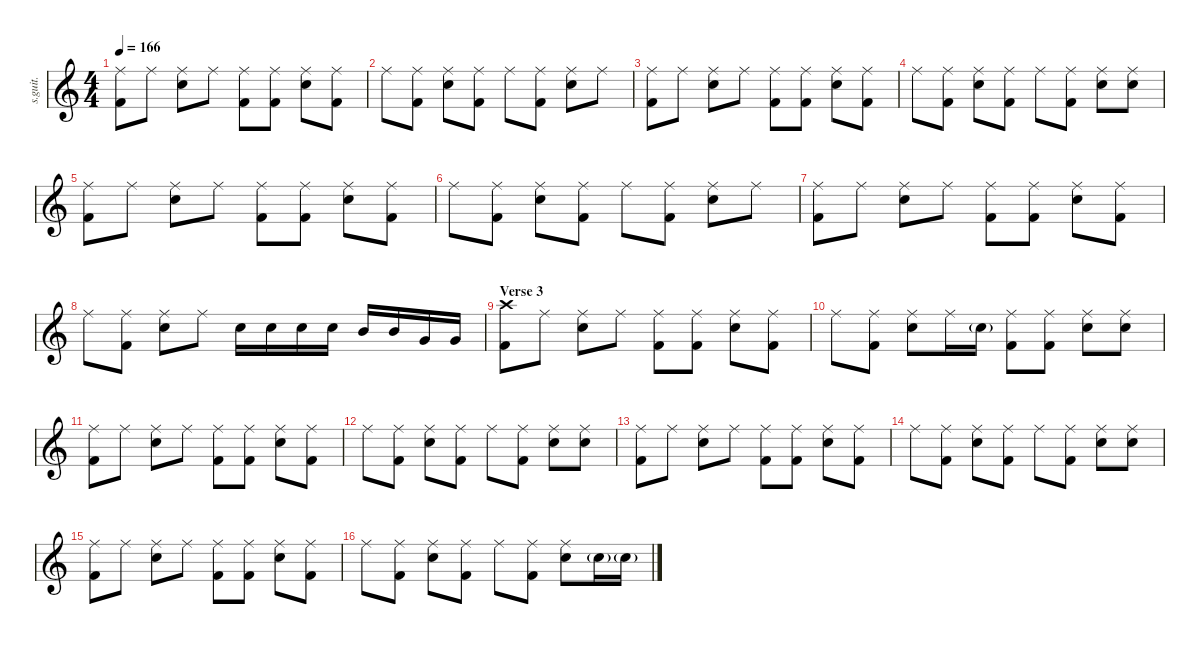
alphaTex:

\defaultSystemsLayout 4
\hideDynamics
\bracketExtendMode nobrackets
\track ("Phil Selway" "s.guit.") {instrument percussion}
\staff {score}
\articulation defaults
\ts (4 4)
\tempo 166
\clef g2
\ks c
("Ride (middle)" "Kick (hit) 2").8{lyrics (0 "") lyrics (1 "") lyrics (2 "") lyrics (3 "") lyrics (4 "") dy f} "Ride (middle)".8{lyrics (0 "") lyrics (1 "") lyrics (2 "") lyrics (3 "") lyrics (4 "")} ("Ride (middle)" "Electric Snare (hit)").8{lyrics (0 "") lyrics (1 "") lyrics (2 "") lyrics (3 "") lyrics (4 "")} "Ride (middle)".8{lyrics (0 "") lyrics (1 "") lyrics (2 "") lyrics (3 "") lyrics (4 "")} ("Ride (middle)" "Kick (hit) 2").8{lyrics (0 "") lyrics (1 "") lyrics (2 "") lyrics (3 "") lyrics (4 "")} ("Ride (middle)" "Kick (hit) 2").8{lyrics (0 "") lyrics (1 "") lyrics (2 "") lyrics (3 "") lyrics (4 "")} ("Ride (middle)" "Electric Snare (hit)").8{lyrics (0 "") lyrics (1 "") lyrics (2 "") lyrics (3 "") lyrics (4 "")} ("Ride (middle)" "Kick (hit) 2").8{lyrics (0 "") lyrics (1 "") lyrics (2 "") lyrics (3 "") lyrics (4 "")} |
"Ride (middle)".8{lyrics (0 "") lyrics (1 "") lyrics (2 "") lyrics (3 "") lyrics (4 "")} ("Ride (middle)" "Kick (hit) 2").8{lyrics (0 "") lyrics (1 "") lyrics (2 "") lyrics (3 "") lyrics (4 "")} ("Ride (middle)" "Electric Snare (hit)").8{lyrics (0 "") lyrics (1 "") lyrics (2 "") lyrics (3 "") lyrics (4 "")} ("Ride (middle)" "Kick (hit) 2").8{lyrics (0 "") lyrics (1 "") lyrics (2 "") lyrics (3 "") lyrics (4 "")} "Ride (middle)".8{lyrics (0 "") lyrics (1 "") lyrics (2 "") lyrics (3 "") lyrics (4 "")} ("Ride (middle)" "Kick (hit) 2").8{lyrics (0 "") lyrics (1 "") lyrics (2 "") lyrics (3 "") lyrics (4 "")} ("Ride (middle)" "Electric Snare (hit)").8{lyrics (0 "") lyrics (1 "") lyrics (2 "") lyrics (3 "") lyrics (4 "")} "Ride (middle)".8{lyrics (0 "") lyrics (1 "") lyrics (2 "") lyrics (3 "") lyrics (4 "")} |
("Ride (middle)" "Kick (hit) 2").8{lyrics (0 "") lyrics (1 "") lyrics (2 "") lyrics (3 "") lyrics (4 "")} "Ride (middle)".8{lyrics (0 "") lyrics (1 "") lyrics (2 "") lyrics (3 "") lyrics (4 "")} ("Ride (middle)" "Electric Snare (hit)").8{lyrics (0 "") lyrics (1 "") lyrics (2 "") lyrics (3 "") lyrics (4 "")} "Ride (middle)".8{lyrics (0 "") lyrics (1 "") lyrics (2 "") lyrics (3 "") lyrics (4 "")} ("Ride (middle)" "Kick (hit) 2").8{lyrics (0 "") lyrics (1 "") lyrics (2 "") lyrics (3 "") lyrics (4 "")} ("Ride (middle)" "Kick (hit) 2").8{lyrics (0 "") lyrics (1 "") lyrics (2 "") lyrics (3 "") lyrics (4 "")} ("Ride (middle)" "Electric Snare (hit)").8{lyrics (0 "") lyrics (1 "") lyrics (2 "") lyrics (3 "") lyrics (4 "")} ("Ride (middle)" "Kick (hit) 2").8{lyrics (0 "") lyrics (1 "") lyrics (2 "") lyrics (3 "") lyrics (4 "")} |
"Ride (middle)".8{lyrics (0 "") lyrics (1 "") lyrics (2 "") lyrics (3 "") lyrics (4 "")} ("Ride (middle)" "Kick (hit) 2").8{lyrics (0 "") lyrics (1 "") lyrics (2 "") lyrics (3 "") lyrics (4 "")} ("Ride (middle)" "Electric Snare (hit)").8{lyrics (0 "") lyrics (1 "") lyrics (2 "") lyrics (3 "") lyrics (4 "")} ("Ride (middle)" "Kick (hit) 2").8{lyrics (0 "") lyrics (1 "") lyrics (2 "") lyrics (3 "") lyrics (4 "")} "Ride (middle)".8{lyrics (0 "") lyrics (1 "") lyrics (2 "") lyrics (3 "") lyrics (4 "")} ("Ride (middle)" "Kick (hit) 2").8{lyrics (0 "") lyrics (1 "") lyrics (2 "") lyrics (3 "") lyrics (4 "")} ("Ride (middle)" "Electric Snare (hit)").8{lyrics (0 "") lyrics (1 "") lyrics (2 "") lyrics (3 "") lyrics (4 "")} ("Ride (middle)" "Electric Snare (hit)").8{lyrics (0 "") lyrics (1 "") lyrics (2 "") lyrics (3 "") lyrics (4 "")} |
("Ride (middle)" "Kick (hit) 2").8{lyrics (0 "") lyrics (1 "") lyrics (2 "") lyrics (3 "") lyrics (4 "")} "Ride (middle)".8{lyrics (0 "") lyrics (1 "") lyrics (2 "") lyrics (3 "") lyrics (4 "")} ("Ride (middle)" "Electric Snare (hit)").8{lyrics (0 "") lyrics (1 "") lyrics (2 "") lyrics (3 "") lyrics (4 "")} "Ride (middle)".8{lyrics (0 "") lyrics (1 "") lyrics (2 "") lyrics (3 "") lyrics (4 "")} ("Ride (middle)" "Kick (hit) 2").8{lyrics (0 "") lyrics (1 "") lyrics (2 "") lyrics (3 "") lyrics (4 "")} ("Ride (middle)" "Kick (hit) 2").8{lyrics (0 "") lyrics (1 "") lyrics (2 "") lyrics (3 "") lyrics (4 "")} ("Ride (middle)" "Electric Snare (hit)").8{lyrics (0 "") lyrics (1 "") lyrics (2 "") lyrics (3 "") lyrics (4 "")} ("Ride (middle)" "Kick (hit) 2").8{lyrics (0 "") lyrics (1 "") lyrics (2 "") lyrics (3 "") lyrics (4 "")} |
"Ride (middle)".8{lyrics (0 "") lyrics (1 "") lyrics (2 "") lyrics (3 "") lyrics (4 "")} ("Ride (middle)" "Kick (hit) 2").8{lyrics (0 "") lyrics (1 "") lyrics (2 "") lyrics (3 "") lyrics (4 "")} ("Ride (middle)" "Electric Snare (hit)").8{lyrics (0 "") lyrics (1 "") lyrics (2 "") lyrics (3 "") lyrics (4 "")} ("Ride (middle)" "Kick (hit) 2").8{lyrics (0 "") lyrics (1 "") lyrics (2 "") lyrics (3 "") lyrics (4 "")} "Ride (middle)".8{lyrics (0 "") lyrics (1 "") lyrics (2 "") lyrics (3 "") lyrics (4 "")} ("Ride (middle)" "Kick (hit) 2").8{lyrics (0 "") lyrics (1 "") lyrics (2 "") lyrics (3 "") lyrics (4 "")} ("Ride (middle)" "Electric Snare (hit)").8{lyrics (0 "") lyrics (1 "") lyrics (2 "") lyrics (3 "") lyrics (4 "")} "Ride (middle)".8{lyrics (0 "") lyrics (1 "") lyrics (2 "") lyrics (3 "") lyrics (4 "")} |
("Ride (middle)" "Kick (hit) 2").8{lyrics (0 "") lyrics (1 "") lyrics (2 "") lyrics (3 "") lyrics (4 "")} "Ride (middle)".8{lyrics (0 "") lyrics (1 "") lyrics (2 "") lyrics (3 "") lyrics (4 "")} ("Ride (middle)" "Electric Snare (hit)").8{lyrics (0 "") lyrics (1 "") lyrics (2 "") lyrics (3 "") lyrics (4 "")} "Ride (middle)".8{lyrics (0 "") lyrics (1 "") lyrics (2 "") lyrics (3 "") lyrics (4 "")} ("Ride (middle)" "Kick (hit) 2").8{lyrics (0 "") lyrics (1 "") lyrics (2 "") lyrics (3 "") lyrics (4 "")} ("Ride (middle)" "Kick (hit) 2").8{lyrics (0 "") lyrics (1 "") lyrics (2 "") lyrics (3 "") lyrics (4 "")} ("Ride (middle)" "Electric Snare (hit)").8{lyrics (0 "") lyrics (1 "") lyrics (2 "") lyrics (3 "") lyrics (4 "")} ("Ride (middle)" "Kick (hit) 2").8{lyrics (0 "") lyrics (1 "") lyrics (2 "") lyrics (3 "") lyrics (4 "")} |
"Ride (middle)".8{lyrics (0 "") lyrics (1 "") lyrics (2 "") lyrics (3 "") lyrics (4 "")} ("Ride (middle)" "Kick (hit) 2").8{lyrics (0 "") lyrics (1 "") lyrics (2 "") lyrics (3 "") lyrics (4 "")} ("Ride (middle)" "Electric Snare (hit)").8{lyrics (0 "") lyrics (1 "") lyrics (2 "") lyrics (3 "") lyrics (4 "")} "Ride (middle)".8{lyrics (0 "") lyrics (1 "") lyrics (2 "") lyrics (3 "") lyrics (4 "")} "Snare (hit) 2".16{lyrics (0 "") lyrics (1 "") lyrics (2 "") lyrics (3 "") lyrics (4 "")} "Snare (hit) 2".16{lyrics (0 "") lyrics (1 "") lyrics (2 "") lyrics (3 "") lyrics (4 "")} "Snare (hit) 2".16{lyrics (0 "") lyrics (1 "") lyrics (2 "") lyrics (3 "") lyrics (4 "")} "Snare (hit) 2".16{lyrics (0 "") lyrics (1 "") lyrics (2 "") lyrics (3 "") lyrics (4 "")} "Mid Tom (hit)".16{lyrics (0 "") lyrics (1 "") lyrics (2 "") lyrics (3 "") lyrics (4 "")} "Mid Tom (hit)".16{lyrics (0 "") lyrics (1 "") lyrics (2 "") lyrics (3 "") lyrics (4 "")} "Very Low Tom (hit)".16{lyrics (0 "") lyrics (1 "") lyrics (2 "") lyrics (3 "") lyrics (4 "")} "Very Low Tom (hit)".16{lyrics (0 "") lyrics (1 "") lyrics (2 "") lyrics (3 "") lyrics (4 "")} |
\section ("" "Verse 3")
("Crash high (hit)" "Kick (hit) 2").8{lyrics (0 "") lyrics (1 "") lyrics (2 "") lyrics (3 "") lyrics (4 "")} "Ride (middle)".8{lyrics (0 "") lyrics (1 "") lyrics (2 "") lyrics (3 "") lyrics (4 "")} ("Ride (middle)" "Electric Snare (hit)").8{lyrics (0 "") lyrics (1 "") lyrics (2 "") lyrics (3 "") lyrics (4 "")} "Ride (middle)".8{lyrics (0 "") lyrics (1 "") lyrics (2 "") lyrics (3 "") lyrics (4 "")} ("Ride (middle)" "Kick (hit) 2").8{lyrics (0 "") lyrics (1 "") lyrics (2 "") lyrics (3 "") lyrics (4 "")} ("Ride (middle)" "Kick (hit) 2").8{lyrics (0 "") lyrics (1 "") lyrics (2 "") lyrics (3 "") lyrics (4 "")} ("Ride (middle)" "Electric Snare (hit)").8{lyrics (0 "") lyrics (1 "") lyrics (2 "") lyrics (3 "") lyrics (4 "")} ("Ride (middle)" "Kick (hit) 2").8{lyrics (0 "") lyrics (1 "") lyrics (2 "") lyrics (3 "") lyrics (4 "")} |
"Ride (middle)".8{lyrics (0 "") lyrics (1 "") lyrics (2 "") lyrics (3 "") lyrics (4 "")} ("Ride (middle)" "Kick (hit) 2").8{lyrics (0 "") lyrics (1 "") lyrics (2 "") lyrics (3 "") lyrics (4 "")} ("Ride (middle)" "Electric Snare (hit)").8{lyrics (0 "") lyrics (1 "") lyrics (2 "") lyrics (3 "") lyrics (4 "")} "Ride (middle)".16{lyrics (0 "") lyrics (1 "") lyrics (2 "") lyrics (3 "") lyrics (4 "")} "Snare (hit) 2"{g}.16{lyrics (0 "") lyrics (1 "") lyrics (2 "") lyrics (3 "") lyrics (4 "") dy mf} ("Ride (middle)" "Kick (hit) 2").8{lyrics (0 "") lyrics (1 "") lyrics (2 "") lyrics (3 "") lyrics (4 "")} ("Ride (middle)" "Kick (hit) 2").8{lyrics (0 "") lyrics (1 "") lyrics (2 "") lyrics (3 "") lyrics (4 "") dy f} ("Ride (middle)" "Electric Snare (hit)").8{lyrics (0 "") lyrics (1 "") lyrics (2 "") lyrics (3 "") lyrics (4 "")} ("Ride (middle)" "Electric Snare (hit)").8{lyrics (0 "") lyrics (1 "") lyrics (2 "") lyrics (3 "") lyrics (4 "")} |
("Ride (middle)" "Kick (hit) 2").8{lyrics (0 "") lyrics (1 "") lyrics (2 "") lyrics (3 "") lyrics (4 "")} "Ride (middle)".8{lyrics (0 "") lyrics (1 "") lyrics (2 "") lyrics (3 "") lyrics (4 "")} ("Ride (middle)" "Electric Snare (hit)").8{lyrics (0 "") lyrics (1 "") lyrics (2 "") lyrics (3 "") lyrics (4 "")} "Ride (middle)".8{lyrics (0 "") lyrics (1 "") lyrics (2 "") lyrics (3 "") lyrics (4 "")} ("Ride (middle)" "Kick (hit) 2").8{lyrics (0 "") lyrics (1 "") lyrics (2 "") lyrics (3 "") lyrics (4 "")} ("Ride (middle)" "Kick (hit) 2").8{lyrics (0 "") lyrics (1 "") lyrics (2 "") lyrics (3 "") lyrics (4 "")} ("Ride (middle)" "Electric Snare (hit)").8{lyrics (0 "") lyrics (1 "") lyrics (2 "") lyrics (3 "") lyrics (4 "")} ("Ride (middle)" "Kick (hit) 2").8{lyrics (0 "") lyrics (1 "") lyrics (2 "") lyrics (3 "") lyrics (4 "")} |
"Ride (middle)".8{lyrics (0 "") lyrics (1 "") lyrics (2 "") lyrics (3 "") lyrics (4 "")} ("Ride (middle)" "Kick (hit) 2").8{lyrics (0 "") lyrics (1 "") lyrics (2 "") lyrics (3 "") lyrics (4 "")} ("Ride (middle)" "Electric Snare (hit)").8{lyrics (0 "") lyrics (1 "") lyrics (2 "") lyrics (3 "") lyrics (4 "")} ("Ride (middle)" "Kick (hit) 2").8{lyrics (0 "") lyrics (1 "") lyrics (2 "") lyrics (3 "") lyrics (4 "")} "Ride (middle)".8{lyrics (0 "") lyrics (1 "") lyrics (2 "") lyrics (3 "") lyrics (4 "")} ("Ride (middle)" "Kick (hit) 2").8{lyrics (0 "") lyrics (1 "") lyrics (2 "") lyrics (3 "") lyrics (4 "")} ("Ride (middle)" "Electric Snare (hit)").8{lyrics (0 "") lyrics (1 "") lyrics (2 "") lyrics (3 "") lyrics (4 "")} ("Ride (middle)" "Electric Snare (hit)").8{lyrics (0 "") lyrics (1 "") lyrics (2 "") lyrics (3 "") lyrics (4 "")} |
("Ride (middle)" "Kick (hit) 2").8{lyrics (0 "") lyrics (1 "") lyrics (2 "") lyrics (3 "") lyrics (4 "")} "Ride (middle)".8{lyrics (0 "") lyrics (1 "") lyrics (2 "") lyrics (3 "") lyrics (4 "")} ("Ride (middle)" "Electric Snare (hit)").8{lyrics (0 "") lyrics (1 "") lyrics (2 "") lyrics (3 "") lyrics (4 "")} "Ride (middle)".8{lyrics (0 "") lyrics (1 "") lyrics (2 "") lyrics (3 "") lyrics (4 "")} ("Ride (middle)" "Kick (hit) 2").8{lyrics (0 "") lyrics (1 "") lyrics (2 "") lyrics (3 "") lyrics (4 "")} ("Ride (middle)" "Kick (hit) 2").8{lyrics (0 "") lyrics (1 "") lyrics (2 "") lyrics (3 "") lyrics (4 "")} ("Ride (middle)" "Electric Snare (hit)").8{lyrics (0 "") lyrics (1 "") lyrics (2 "") lyrics (3 "") lyrics (4 "")} ("Ride (middle)" "Kick (hit) 2").8{lyrics (0 "") lyrics (1 "") lyrics (2 "") lyrics (3 "") lyrics (4 "")} |
"Ride (middle)".8{lyrics (0 "") lyrics (1 "") lyrics (2 "") lyrics (3 "") lyrics (4 "")} ("Ride (middle)" "Kick (hit) 2").8{lyrics (0 "") lyrics (1 "") lyrics (2 "") lyrics (3 "") lyrics (4 "")} ("Ride (middle)" "Electric Snare (hit)").8{lyrics (0 "") lyrics (1 "") lyrics (2 "") lyrics (3 "") lyrics (4 "")} ("Ride (middle)" "Kick (hit) 2").8{lyrics (0 "") lyrics (1 "") lyrics (2 "") lyrics (3 "") lyrics (4 "")} "Ride (middle)".8{lyrics (0 "") lyrics (1 "") lyrics (2 "") lyrics (3 "") lyrics (4 "")} ("Ride (middle)" "Kick (hit) 2").8{lyrics (0 "") lyrics (1 "") lyrics (2 "") lyrics (3 "") lyrics (4 "")} ("Ride (middle)" "Electric Snare (hit)").8{lyrics (0 "") lyrics (1 "") lyrics (2 "") lyrics (3 "") lyrics (4 "")} ("Ride (middle)" "Electric Snare (hit)").8{lyrics (0 "") lyrics (1 "") lyrics (2 "") lyrics (3 "") lyrics (4 "")} |
("Ride (middle)" "Kick (hit) 2").8{lyrics (0 "") lyrics (1 "") lyrics (2 "") lyrics (3 "") lyrics (4 "")} "Ride (middle)".8{lyrics (0 "") lyrics (1 "") lyrics (2 "") lyrics (3 "") lyrics (4 "")} ("Ride (middle)" "Electric Snare (hit)").8{lyrics (0 "") lyrics (1 "") lyrics (2 "") lyrics (3 "") lyrics (4 "")} "Ride (middle)".8{lyrics (0 "") lyrics (1 "") lyrics (2 "") lyrics (3 "") lyrics (4 "")} ("Ride (middle)" "Kick (hit) 2").8{lyrics (0 "") lyrics (1 "") lyrics (2 "") lyrics (3 "") lyrics (4 "")} ("Ride (middle)" "Kick (hit) 2").8{lyrics (0 "") lyrics (1 "") lyrics (2 "") lyrics (3 "") lyrics (4 "")} ("Ride (middle)" "Electric Snare (hit)").8{lyrics (0 "") lyrics (1 "") lyrics (2 "") lyrics (3 "") lyrics (4 "")} ("Ride (middle)" "Kick (hit) 2").8{lyrics (0 "") lyrics (1 "") lyrics (2 "") lyrics (3 "") lyrics (4 "")} |
"Ride (middle)".8{lyrics (0 "") lyrics (1 "") lyrics (2 "") lyrics (3 "") lyrics (4 "")} ("Ride (middle)" "Kick (hit) 2").8{lyrics (0 "") lyrics (1 "") lyrics (2 "") lyrics (3 "") lyrics (4 "")} ("Ride (middle)" "Electric Snare (hit)").8{lyrics (0 "") lyrics (1 "") lyrics (2 "") lyrics (3 "") lyrics (4 "")} ("Ride (middle)" "Kick (hit) 2").8{lyrics (0 "") lyrics (1 "") lyrics (2 "") lyrics (3 "") lyrics (4 "")} "Ride (middle)".8{lyrics (0 "") lyrics (1 "") lyrics (2 "") lyrics (3 "") lyrics (4 "")} ("Ride (middle)" "Kick (hit) 2").8{lyrics (0 "") lyrics (1 "") lyrics (2 "") lyrics (3 "") lyrics (4 "")} ("Ride (middle)" "Electric Snare (hit)").8{lyrics (0 "") lyrics (1 "") lyrics (2 "") lyrics (3 "") lyrics (4 "")} "Electric Snare (hit)"{g}.16{lyrics (0 "") lyrics (1 "") lyrics (2 "") lyrics (3 "") lyrics (4 "")} "Electric Snare (hit)"{g}.16{lyrics (0 "") lyrics (1 "") lyrics (2 "") lyrics (3 "") lyrics (4 "")}
